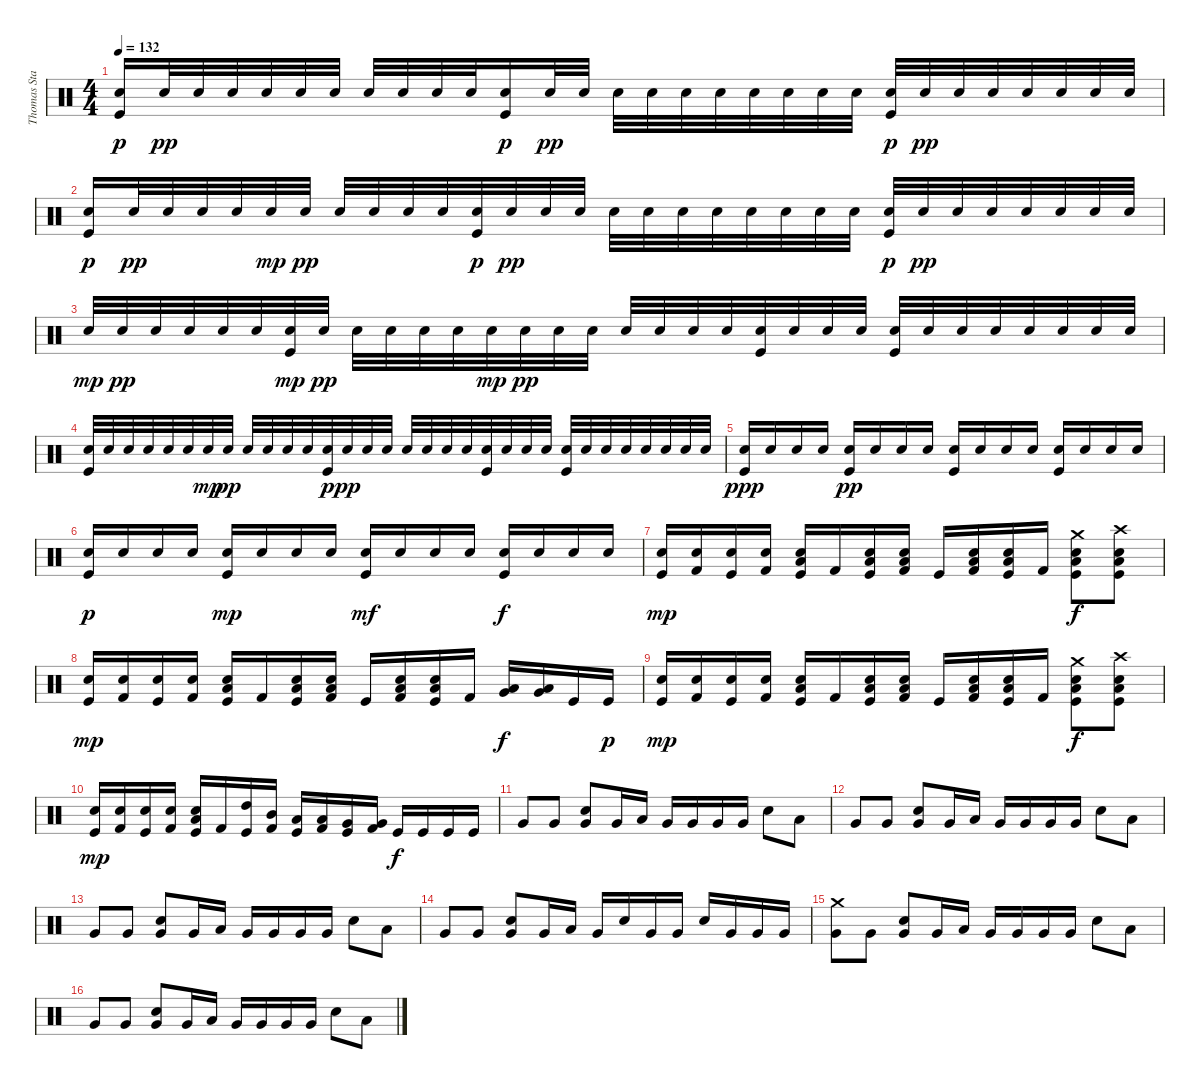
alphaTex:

\track ("Thomas Stauch" "Thomas Sta") {instrument percussion}
\staff {score}
\articulation defaults
\ts (4 4)
\tempo 132
\clef neutral
\ks c
("Electric Snare (hit)" "Kick (hit)").16{dy p} "Electric Snare (hit)".32{dy pp} "Electric Snare (hit)".32 "Electric Snare (hit)".32 "Electric Snare (hit)".32 "Electric Snare (hit)".32 "Electric Snare (hit)".32 "Electric Snare (hit)".32 "Electric Snare (hit)".32 "Electric Snare (hit)".32 "Electric Snare (hit)".32 ("Electric Snare (hit)" "Kick (hit)").16{dy p} "Electric Snare (hit)".32{dy pp} "Electric Snare (hit)".32 "Electric Snare (hit)".32 "Electric Snare (hit)".32 "Electric Snare (hit)".32 "Electric Snare (hit)".32 "Electric Snare (hit)".32 "Electric Snare (hit)".32 "Electric Snare (hit)".32 "Electric Snare (hit)".32 ("Electric Snare (hit)" "Kick (hit)").32{dy p} "Electric Snare (hit)".32{dy pp} "Electric Snare (hit)".32 "Electric Snare (hit)".32 "Electric Snare (hit)".32 "Electric Snare (hit)".32 "Electric Snare (hit)".32 "Electric Snare (hit)".32 |
("Electric Snare (hit)" "Kick (hit)").16{dy p} "Electric Snare (hit)".32{dy pp} "Electric Snare (hit)".32 "Electric Snare (hit)".32 "Electric Snare (hit)".32 "Electric Snare (hit)".32{dy mp} "Electric Snare (hit)".32{dy pp} "Electric Snare (hit)".32 "Electric Snare (hit)".32 "Electric Snare (hit)".32 "Electric Snare (hit)".32 ("Electric Snare (hit)" "Kick (hit)").32{dy p} "Electric Snare (hit)".32{dy pp} "Electric Snare (hit)".32 "Electric Snare (hit)".32 "Electric Snare (hit)".32 "Electric Snare (hit)".32 "Electric Snare (hit)".32 "Electric Snare (hit)".32 "Electric Snare (hit)".32 "Electric Snare (hit)".32 "Electric Snare (hit)".32 "Electric Snare (hit)".32 ("Electric Snare (hit)" "Kick (hit)").32{dy p} "Electric Snare (hit)".32{dy pp} "Electric Snare (hit)".32 "Electric Snare (hit)".32 "Electric Snare (hit)".32 "Electric Snare (hit)".32 "Electric Snare (hit)".32 "Electric Snare (hit)".32 |
"Electric Snare (hit)".32{dy mp} "Electric Snare (hit)".32{dy pp} "Electric Snare (hit)".32 "Electric Snare (hit)".32 "Electric Snare (hit)".32 "Electric Snare (hit)".32 ("Electric Snare (hit)" "Kick (hit)").32{dy mp} "Electric Snare (hit)".32{dy pp} "Electric Snare (hit)".32 "Electric Snare (hit)".32 "Electric Snare (hit)".32 "Electric Snare (hit)".32 "Electric Snare (hit)".32{dy mp} "Electric Snare (hit)".32{dy pp} "Electric Snare (hit)".32 "Electric Snare (hit)".32 "Electric Snare (hit)".32 "Electric Snare (hit)".32 "Electric Snare (hit)".32 "Electric Snare (hit)".32 ("Electric Snare (hit)" "Kick (hit)").32 "Electric Snare (hit)".32 "Electric Snare (hit)".32 "Electric Snare (hit)".32 ("Electric Snare (hit)" "Kick (hit)").32 "Electric Snare (hit)".32 "Electric Snare (hit)".32 "Electric Snare (hit)".32 "Electric Snare (hit)".32 "Electric Snare (hit)".32 "Electric Snare (hit)".32 "Electric Snare (hit)".32 |
("Electric Snare (hit)" "Kick (hit)").32 "Electric Snare (hit)".32 "Electric Snare (hit)".32 "Electric Snare (hit)".32 "Electric Snare (hit)".32 "Electric Snare (hit)".32 "Electric Snare (hit)".32{dy mp} "Electric Snare (hit)".32{dy pp} "Electric Snare (hit)".32 "Electric Snare (hit)".32 "Electric Snare (hit)".32 "Electric Snare (hit)".32 ("Electric Snare (hit)" "Kick (hit)").32{dy p} "Electric Snare (hit)".32{dy pp} "Electric Snare (hit)".32 "Electric Snare (hit)".32 "Electric Snare (hit)".32 "Electric Snare (hit)".32 "Electric Snare (hit)".32 "Electric Snare (hit)".32 ("Electric Snare (hit)" "Kick (hit)").32 "Electric Snare (hit)".32 "Electric Snare (hit)".32 "Electric Snare (hit)".32 ("Electric Snare (hit)" "Kick (hit)").32 "Electric Snare (hit)".32 "Electric Snare (hit)".32 "Electric Snare (hit)".32 "Electric Snare (hit)".32 "Electric Snare (hit)".32 "Electric Snare (hit)".32 "Electric Snare (hit)".32 |
("Electric Snare (hit)" "Kick (hit)").16{dy ppp} "Electric Snare (hit)".16 "Electric Snare (hit)".16 "Electric Snare (hit)".16 ("Electric Snare (hit)" "Kick (hit)").16{dy pp} "Electric Snare (hit)".16 "Electric Snare (hit)".16 "Electric Snare (hit)".16 ("Electric Snare (hit)" "Kick (hit)").16 "Electric Snare (hit)".16 "Electric Snare (hit)".16 "Electric Snare (hit)".16 ("Electric Snare (hit)" "Kick (hit)").16 "Electric Snare (hit)".16 "Electric Snare (hit)".16 "Electric Snare (hit)".16 |
("Electric Snare (hit)" "Kick (hit)").16{dy p} "Electric Snare (hit)".16 "Electric Snare (hit)".16 "Electric Snare (hit)".16 ("Electric Snare (hit)" "Kick (hit)").16{dy mp} "Electric Snare (hit)".16 "Electric Snare (hit)".16 "Electric Snare (hit)".16 ("Electric Snare (hit)" "Kick (hit)").16{dy mf} "Electric Snare (hit)".16 "Electric Snare (hit)".16 "Electric Snare (hit)".16 ("Electric Snare (hit)" "Kick (hit)").16{dy f} "Electric Snare (hit)".16 "Electric Snare (hit)".16 "Electric Snare (hit)".16 |
("Electric Snare (hit)" "Kick (hit)").16{dy mp volume 13} ("Electric Snare (hit)" "Kick (hit) 2").16 ("Electric Snare (hit)" "Kick (hit)").16 ("Electric Snare (hit)" "Kick (hit) 2").16 ("Electric Snare (hit)" "Low Tom (hit)" "Kick (hit)").16 "Kick (hit) 2".16 ("Low Tom (hit)" "Electric Snare (hit)" "Kick (hit)").16 ("Low Tom (hit)" "Electric Snare (hit)" "Kick (hit) 2").16 "Kick (hit)".16 ("Low Tom (hit)" "Electric Snare (hit)" "Kick (hit) 2").16 ("Low Tom (hit)" "Electric Snare (hit)" "Kick (hit)").16 "Kick (hit) 2".16 ("Crash medium (hit)" "Low Tom (hit)" "Electric Snare (hit)" "Kick (hit)").8{dy f} ("Crash high (hit)" "Low Tom (hit)" "Electric Snare (hit)" "Kick (hit)").8 |
("Electric Snare (hit)" "Kick (hit)").16{dy mp} ("Electric Snare (hit)" "Kick (hit) 2").16 ("Electric Snare (hit)" "Kick (hit)").16 ("Electric Snare (hit)" "Kick (hit) 2").16 ("Low Tom (hit)" "Electric Snare (hit)" "Kick (hit)").16 "Kick (hit) 2".16 ("Low Tom (hit)" "Electric Snare (hit)" "Kick (hit)").16 ("Low Tom (hit)" "Electric Snare (hit)" "Kick (hit) 2").16 "Kick (hit)".16 ("Low Tom (hit)" "Electric Snare (hit)" "Kick (hit) 2").16 ("Low Tom (hit)" "Electric Snare (hit)" "Kick (hit)").16 "Kick (hit) 2".16 ("Low Tom (hit)" "Very Low Tom (hit)").16{dy f} ("Very Low Tom (hit)" "Low Tom (hit)").16 "Kick (hit)".16 "Kick (hit)".16{dy p} |
("Electric Snare (hit)" "Kick (hit)").16{dy mp} ("Electric Snare (hit)" "Kick (hit) 2").16 ("Electric Snare (hit)" "Kick (hit)").16 ("Electric Snare (hit)" "Kick (hit) 2").16 ("Electric Snare (hit)" "Low Tom (hit)" "Kick (hit)").16 "Kick (hit) 2".16 ("Low Tom (hit)" "Electric Snare (hit)" "Kick (hit)").16 ("Low Tom (hit)" "Electric Snare (hit)" "Kick (hit) 2").16 "Kick (hit)".16 ("Low Tom (hit)" "Electric Snare (hit)" "Kick (hit) 2").16 ("Low Tom (hit)" "Electric Snare (hit)" "Kick (hit)").16 "Kick (hit) 2".16 ("Crash medium (hit)" "Low Tom (hit)" "Electric Snare (hit)" "Kick (hit)").8{dy f} ("Crash high (hit)" "Low Tom (hit)" "Electric Snare (hit)" "Kick (hit)").8 |
("Electric Snare (hit)" "Kick (hit)").16{dy mp} ("Electric Snare (hit)" "Kick (hit) 2").16 ("Electric Snare (hit)" "Kick (hit)").16 ("Electric Snare (hit)" "Kick (hit) 2").16 ("Electric Snare (hit)" "Low Tom (hit)" "Kick (hit)").16 "Kick (hit) 2".16 ("High Tom (hit)" "Kick (hit)").16 ("Mid Tom (hit)" "Kick (hit) 2").16 ("Low Tom (hit)" "Kick (hit)").16 ("Low Tom (hit)" "Kick (hit) 2").16 ("Very Low Tom (hit)" "Kick (hit)").16 ("Very Low Tom (hit)" "Kick (hit) 2").16 "Kick (hit)".16{dy f} "Kick (hit)".16 "Kick (hit)".16 "Kick (hit)".16 |
"Very Low Tom (hit)".8{volume 16} "Very Low Tom (hit)".8 ("Electric Snare (hit)" "Very Low Tom (hit)").8 "Very Low Tom (hit)".16 "Low Tom (hit)".16 "Very Low Tom (hit)".16 "Very Low Tom (hit)".16 "Very Low Tom (hit)".16 "Very Low Tom (hit)".16 "Electric Snare (hit)".8 "Low Floor Tom (hit)".8 |
"Very Low Tom (hit)".8 "Very Low Tom (hit)".8 ("Electric Snare (hit)" "Very Low Tom (hit)").8 "Very Low Tom (hit)".16 "Low Tom (hit)".16 "Very Low Tom (hit)".16 "Very Low Tom (hit)".16 "Very Low Tom (hit)".16 "Very Low Tom (hit)".16 "Electric Snare (hit)".8 "Low Floor Tom (hit)".8 |
"Very Low Tom (hit)".8 "Very Low Tom (hit)".8 ("Electric Snare (hit)" "Very Low Tom (hit)").8 "Very Low Tom (hit)".16 "Low Tom (hit)".16 "Very Low Tom (hit)".16 "Very Low Tom (hit)".16 "Very Low Tom (hit)".16 "Very Low Tom (hit)".16 "Electric Snare (hit)".8 "Low Floor Tom (hit)".8 |
"Very Low Tom (hit)".8 "Very Low Tom (hit)".8 ("Electric Snare (hit)" "Very Low Tom (hit)").8 "Very Low Tom (hit)".16 "Low Tom (hit)".16 "Very Low Tom (hit)".16 "Electric Snare (hit)".16 "Very Low Tom (hit)".16 "Very Low Tom (hit)".16 "Electric Snare (hit)".16 "Very Low Tom (hit)".16 "Very Low Tom (hit)".16 "Very Low Tom (hit)".16 |
("Crash medium (hit)" "Very Low Tom (hit)").8 "Very Low Tom (hit)".8 ("Electric Snare (hit)" "Very Low Tom (hit)").8 "Very Low Tom (hit)".16 "Low Tom (hit)".16 "Very Low Tom (hit)".16 "Very Low Tom (hit)".16 "Very Low Tom (hit)".16 "Very Low Tom (hit)".16 "Electric Snare (hit)".8 "Low Floor Tom (hit)".8 |
"Very Low Tom (hit)".8 "Very Low Tom (hit)".8 ("Electric Snare (hit)" "Very Low Tom (hit)").8 "Very Low Tom (hit)".16 "Low Tom (hit)".16 "Very Low Tom (hit)".16 "Very Low Tom (hit)".16 "Very Low Tom (hit)".16 "Very Low Tom (hit)".16 "Electric Snare (hit)".8 "Low Floor Tom (hit)".8
